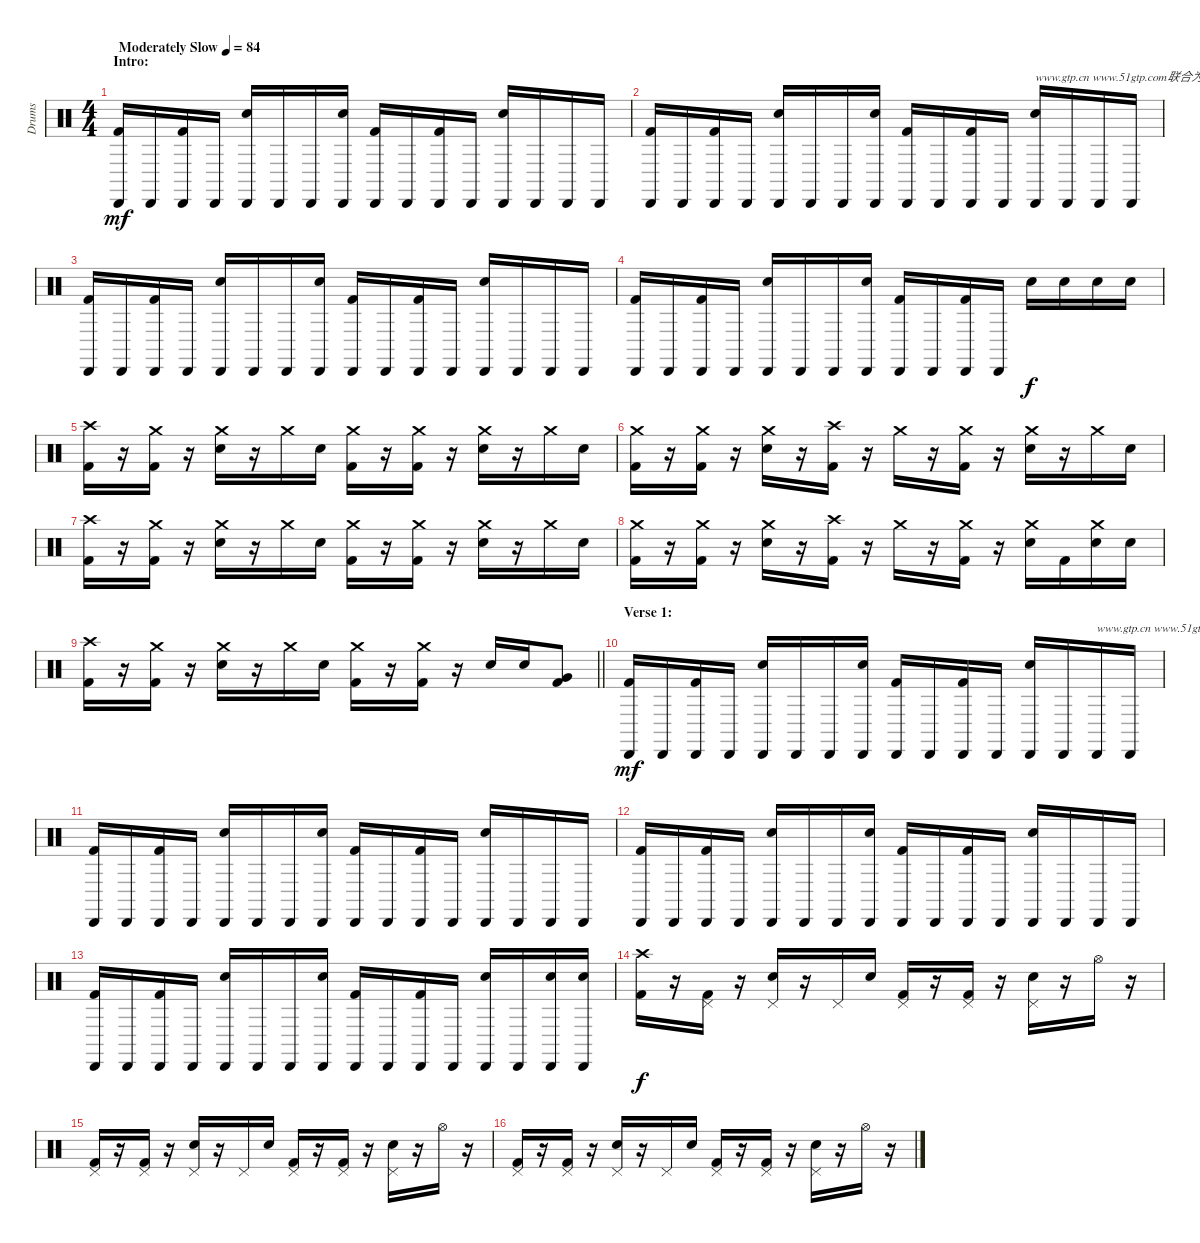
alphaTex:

\track ("Drums" "Drums") {instrument percussion}
\staff {score}
\articulation defaults
\ts (4 4)
\section ("" "Intro:")
\tempo (84 "Moderately Slow")
\clef neutral
\ks c
("Cabasa (hit)" "Kick (hit) 2").16{dy mf} "Cabasa (hit)".16 ("Cabasa (hit)" "Kick (hit) 2").16 "Cabasa (hit)".16 ("Cabasa (hit)" "Electric Snare (hit)").16 "Cabasa (hit)".16 "Cabasa (hit)".16 ("Cabasa (hit)" "Electric Snare (hit)").16 ("Cabasa (hit)" "Kick (hit) 2").16 "Cabasa (hit)".16 ("Cabasa (hit)" "Kick (hit) 2").16 "Cabasa (hit)".16 ("Cabasa (hit)" "Electric Snare (hit)").16 "Cabasa (hit)".16 "Cabasa (hit)".16 "Cabasa (hit)".16 |
("Cabasa (hit)" "Kick (hit) 2").16 "Cabasa (hit)".16 ("Cabasa (hit)" "Kick (hit) 2").16 "Cabasa (hit)".16 ("Cabasa (hit)" "Electric Snare (hit)").16 "Cabasa (hit)".16 "Cabasa (hit)".16 ("Cabasa (hit)" "Electric Snare (hit)").16 ("Cabasa (hit)" "Kick (hit) 2").16 "Cabasa (hit)".16 ("Cabasa (hit)" "Kick (hit) 2").16 "Cabasa (hit)".16 ("Cabasa (hit)" "Electric Snare (hit)").16{txt "www.gtp.cn www.51gtp.com联合为您提供优秀的GTP!"} "Cabasa (hit)".16 "Cabasa (hit)".16 "Cabasa (hit)".16 |
("Cabasa (hit)" "Kick (hit) 2").16 "Cabasa (hit)".16 ("Cabasa (hit)" "Kick (hit) 2").16 "Cabasa (hit)".16 ("Cabasa (hit)" "Electric Snare (hit)").16 "Cabasa (hit)".16 "Cabasa (hit)".16 ("Cabasa (hit)" "Electric Snare (hit)").16 ("Cabasa (hit)" "Kick (hit) 2").16 "Cabasa (hit)".16 ("Cabasa (hit)" "Kick (hit) 2").16 "Cabasa (hit)".16 ("Cabasa (hit)" "Electric Snare (hit)").16 "Cabasa (hit)".16 "Cabasa (hit)".16 "Cabasa (hit)".16 |
("Cabasa (hit)" "Kick (hit) 2").16 "Cabasa (hit)".16 ("Cabasa (hit)" "Kick (hit) 2").16 "Cabasa (hit)".16 ("Cabasa (hit)" "Electric Snare (hit)").16 "Cabasa (hit)".16 "Cabasa (hit)".16 ("Cabasa (hit)" "Electric Snare (hit)").16 ("Cabasa (hit)" "Kick (hit) 2").16 "Cabasa (hit)".16 ("Cabasa (hit)" "Kick (hit) 2").16 "Cabasa (hit)".16 "Electric Snare (hit)".16{dy f} "Electric Snare (hit)".16 "Electric Snare (hit)".16 "Electric Snare (hit)".16 |
("Crash high (hit)" "Kick (hit) 2").16 r.16 ("Crash medium (hit)" "Kick (hit) 2").16 r.16 ("Crash medium (hit)" "Electric Snare (hit)").16 r.16 "Crash medium (hit)".16 "Electric Snare (hit)".16 ("Crash medium (hit)" "Kick (hit) 2").16 r.16 ("Crash medium (hit)" "Kick (hit) 2").16 r.16 ("Crash medium (hit)" "Electric Snare (hit)").16 r.16 "Crash medium (hit)".16 "Electric Snare (hit)".16 |
("Crash medium (hit)" "Kick (hit) 2").16 r.16 ("Crash medium (hit)" "Kick (hit) 2").16 r.16 ("Crash medium (hit)" "Electric Snare (hit)").16 r.16 ("Crash high (hit)" "Kick (hit) 2").16 r.16 "Crash medium (hit)".16 r.16 ("Crash medium (hit)" "Kick (hit) 2").16 r.16 ("Crash medium (hit)" "Electric Snare (hit)").16 r.16 "Crash medium (hit)".16 "Electric Snare (hit)".16 |
("Crash high (hit)" "Kick (hit) 2").16 r.16 ("Crash medium (hit)" "Kick (hit) 2").16 r.16 ("Crash medium (hit)" "Electric Snare (hit)").16 r.16 "Crash medium (hit)".16 "Electric Snare (hit)".16 ("Crash medium (hit)" "Kick (hit) 2").16 r.16 ("Crash medium (hit)" "Kick (hit) 2").16 r.16 ("Crash medium (hit)" "Electric Snare (hit)").16 r.16 "Crash medium (hit)".16 "Electric Snare (hit)".16 |
("Crash medium (hit)" "Kick (hit) 2").16 r.16 ("Crash medium (hit)" "Kick (hit) 2").16 r.16 ("Crash medium (hit)" "Electric Snare (hit)").16 r.16 ("Crash high (hit)" "Kick (hit) 2").16 r.16 "Crash medium (hit)".16 r.16 ("Crash medium (hit)" "Kick (hit) 2").16 r.16 ("Crash medium (hit)" "Electric Snare (hit)").16 "Kick (hit) 2".16 ("Crash medium (hit)" "Electric Snare (hit)").16 "Electric Snare (hit)".16 |
\barLineRight lightlight
("Crash high (hit)" "Kick (hit) 2").16 r.16 ("Crash medium (hit)" "Kick (hit) 2").16 r.16 ("Crash medium (hit)" "Electric Snare (hit)").16 r.16 "Crash medium (hit)".16 "Electric Snare (hit)".16 ("Crash medium (hit)" "Kick (hit) 2").16 r.16 ("Crash medium (hit)" "Kick (hit) 2").16 r.16 "Electric Snare (hit)".16 "Electric Snare (hit)".16 ("Very Low Tom (hit)" "Kick (hit) 2").8 |
\section ("" "Verse 1:")
("Cabasa (hit)" "Kick (hit) 2").16{dy mf} "Cabasa (hit)".16 ("Cabasa (hit)" "Kick (hit) 2").16 "Cabasa (hit)".16 ("Cabasa (hit)" "Electric Snare (hit)").16 "Cabasa (hit)".16 "Cabasa (hit)".16 ("Cabasa (hit)" "Electric Snare (hit)").16 ("Cabasa (hit)" "Kick (hit) 2").16 "Cabasa (hit)".16 ("Cabasa (hit)" "Kick (hit) 2").16 "Cabasa (hit)".16 ("Cabasa (hit)" "Electric Snare (hit)").16 "Cabasa (hit)".16 "Cabasa (hit)".16{txt "www.gtp.cn www.51gtp.com联合为您提供优秀的GTP!"} "Cabasa (hit)".16 |
("Cabasa (hit)" "Kick (hit) 2").16 "Cabasa (hit)".16 ("Cabasa (hit)" "Kick (hit) 2").16 "Cabasa (hit)".16 ("Cabasa (hit)" "Electric Snare (hit)").16 "Cabasa (hit)".16 "Cabasa (hit)".16 ("Cabasa (hit)" "Electric Snare (hit)").16 ("Cabasa (hit)" "Kick (hit) 2").16 "Cabasa (hit)".16 ("Cabasa (hit)" "Kick (hit) 2").16 "Cabasa (hit)".16 ("Cabasa (hit)" "Electric Snare (hit)").16 "Cabasa (hit)".16 "Cabasa (hit)".16 "Cabasa (hit)".16 |
("Cabasa (hit)" "Kick (hit) 2").16 "Cabasa (hit)".16 ("Cabasa (hit)" "Kick (hit) 2").16 "Cabasa (hit)".16 ("Cabasa (hit)" "Electric Snare (hit)").16 "Cabasa (hit)".16 "Cabasa (hit)".16 ("Cabasa (hit)" "Electric Snare (hit)").16 ("Cabasa (hit)" "Kick (hit) 2").16 "Cabasa (hit)".16 ("Cabasa (hit)" "Kick (hit) 2").16 "Cabasa (hit)".16 ("Cabasa (hit)" "Electric Snare (hit)").16 "Cabasa (hit)".16 "Cabasa (hit)".16 "Cabasa (hit)".16 |
("Cabasa (hit)" "Kick (hit) 2").16 "Cabasa (hit)".16 ("Cabasa (hit)" "Kick (hit) 2").16 "Cabasa (hit)".16 ("Cabasa (hit)" "Electric Snare (hit)").16 "Cabasa (hit)".16 "Cabasa (hit)".16 ("Cabasa (hit)" "Electric Snare (hit)").16 ("Cabasa (hit)" "Kick (hit) 2").16 "Cabasa (hit)".16 ("Cabasa (hit)" "Kick (hit) 2").16 "Cabasa (hit)".16 ("Cabasa (hit)" "Electric Snare (hit)").16 "Cabasa (hit)".16 ("Cabasa (hit)" "Electric Snare (hit)").16 ("Cabasa (hit)" "Electric Snare (hit)").16 |
("Crash high (hit)" "Kick (hit) 2").16{dy f} r.16 ("Pedal Hi-Hat (hit)" "Kick (hit) 2").16 r.16 ("Pedal Hi-Hat (hit)" "Electric Snare (hit)").16 r.16 "Pedal Hi-Hat (hit)".16 "Electric Snare (hit)".16 ("Pedal Hi-Hat (hit)" "Kick (hit) 2").16 r.16 ("Pedal Hi-Hat (hit)" "Kick (hit) 2").16 r.16 ("Pedal Hi-Hat (hit)" "Electric Snare (hit)").16 r.16 "Hi-Hat (open)".16 r.16 |
("Pedal Hi-Hat (hit)" "Kick (hit) 2").16 r.16 ("Pedal Hi-Hat (hit)" "Kick (hit) 2").16 r.16 ("Pedal Hi-Hat (hit)" "Electric Snare (hit)").16 r.16 "Pedal Hi-Hat (hit)".16 "Electric Snare (hit)".16 ("Pedal Hi-Hat (hit)" "Kick (hit) 2").16 r.16 ("Pedal Hi-Hat (hit)" "Kick (hit) 2").16 r.16 ("Pedal Hi-Hat (hit)" "Electric Snare (hit)").16 r.16 "Hi-Hat (open)".16 r.16 |
("Pedal Hi-Hat (hit)" "Kick (hit) 2").16 r.16 ("Pedal Hi-Hat (hit)" "Kick (hit) 2").16 r.16 ("Pedal Hi-Hat (hit)" "Electric Snare (hit)").16 r.16 "Pedal Hi-Hat (hit)".16 "Electric Snare (hit)".16 ("Pedal Hi-Hat (hit)" "Kick (hit) 2").16 r.16 ("Pedal Hi-Hat (hit)" "Kick (hit) 2").16 r.16 ("Pedal Hi-Hat (hit)" "Electric Snare (hit)").16 r.16 "Hi-Hat (open)".16 r.16
